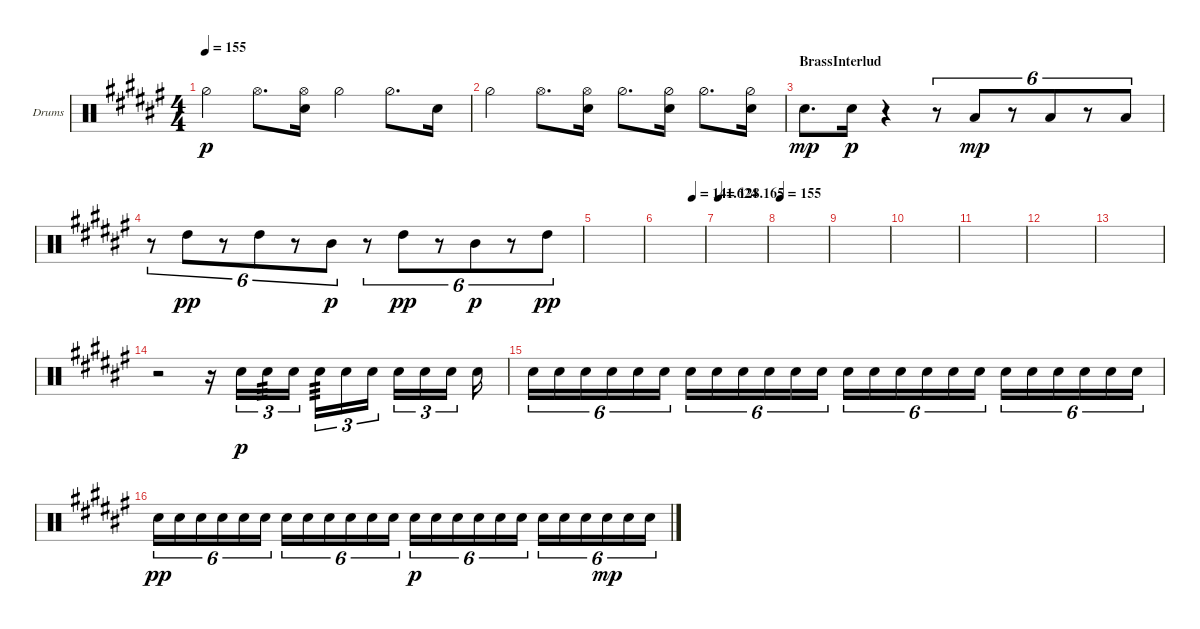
\bracketExtendMode groupsimilarinstruments
\firstSystemTrackNameOrientation horizontal
\otherSystemsTrackNameOrientation horizontal
\track ("Drums" "Drums") {instrument percussion}
\staff {score}
\articulation defaults
\ts (4 4)
\tempo 155
\clef neutral
\scale
0.272727
\ks f# "Hi-Hat (half)".4{dy p} "Hi-Hat (open)".8{d}
("Snare (hit) 2" "Hi-Hat (open)").16 "Hi-Hat (half)".4 "Hi-Hat (half)".8{d} "Snare (hit) 2".16 |
\scale
0.29021 "Hi-Hat (half)".4 "Hi-Hat (open)".8{d} ("Snare (hit) 2" "Hi-Hat (open)").16 "Hi-Hat (half)".8{d} ("Hi-Hat (half)" "Snare (hit) 2").16 "Hi-Hat (half)".8{d} ("Snare (hit) 2" "Hi-Hat (half)").16 |
\section ("" "BrassInterlud")
"Snare (hit) 2".8{d dy mp} "Snare (hit) 2".16{dy p} r.4 r.8{tu (6 4)} "Low Tom (hit)".8{tu (6 4) dy mp} r.8{tu (6 4)} "Low Tom (hit)".8{tu (6 4)} r.8{tu (6 4)} "Low Tom (hit)".8{tu (6 4)} |
r.8{tu (6 4)} "High Tom (hit)".8{tu (6 4) dy pp} r.8{tu (6 4)} "High Tom (hit)".8{tu (6 4)} r.8{tu (6 4)} "Mid Tom (hit)".8{tu (6 4) dy p} r.8{tu (6 4)} "High Tom (hit)".8{tu (6 4) dy pp} r.8{tu (6 4)} "Mid Tom (hit)".8{tu (6 4) dy p} r.8{tu (6 4)} "High Tom (hit)".8{tu (6 4) dy pp} |
|
\tempo (141.624 0.75)
|
\tempo
128.165 |
\tempo (155 0.00625)
|
|
|
|
|
|
r.2 r.16 "Snare (hit) 2".16{tu (3 2) dy p} "Snare (hit) 2".16{tu (3 2) tp 3} "Snare (hit) 2".16{tu (3 2)} "Snare (hit) 2".16{tu (3 2) tp 3} "Snare (hit) 2".16{tu (3 2)} "Snare (hit) 2".16{tu (3 2)} "Snare (hit) 2".16{tu (3 2)} "Snare (hit) 2".16{tu (3 2)} "Snare (hit) 2".16{tu (3 2)} "Snare (hit) 2".16 |
"Snare (hit) 2".16{tu (6 4)} "Snare (hit) 2".16{tu (6 4)} "Snare (hit) 2".16{tu (6 4)} "Snare (hit) 2".16{tu (6 4)} "Snare (hit) 2".16{tu (6 4)} "Snare (hit) 2".16{tu (6 4)} "Snare (hit) 2".16{tu (6 4)} "Snare (hit) 2".16{tu (6 4)} "Snare (hit) 2".16{tu (6 4)} "Snare (hit) 2".16{tu (6 4)} "Snare (hit) 2".16{tu (6 4)} "Snare (hit) 2".16{tu (6 4)} "Snare (hit) 2".16{tu (6 4)} "Snare (hit) 2".16{tu (6 4)} "Snare (hit) 2".16{tu (6 4)} "Snare (hit) 2".16{tu (6 4)} "Snare (hit) 2".16{tu (6 4)} "Snare (hit) 2".16{tu (6 4)} "Snare (hit) 2".16{tu (6 4)} "Snare (hit) 2".16{tu (6 4)} "Snare (hit) 2".16{tu (6 4)} "Snare (hit) 2".16{tu (6 4)} "Snare (hit) 2".16{tu (6 4)} "Snare (hit) 2".16{tu (6 4)} |
"Snare (hit) 2".16{tu (6 4) dy pp} "Snare (hit) 2".16{tu (6 4)} "Snare (hit) 2".16{tu (6 4)} "Snare (hit) 2".16{tu (6 4)} "Snare (hit) 2".16{tu (6 4)} "Snare (hit) 2".16{tu (6 4)} "Snare (hit) 2".16{tu (6 4)} "Snare (hit) 2".16{tu (6 4)} "Snare (hit) 2".16{tu (6 4)} "Snare (hit) 2".16{tu (6 4)} "Snare (hit) 2".16{tu (6 4)} "Snare (hit) 2".16{tu (6 4)} "Snare (hit) 2".16{tu (6 4) dy p} "Snare (hit) 2".16{tu (6 4)} "Snare (hit) 2".16{tu (6 4)} "Snare (hit) 2".16{tu (6 4)} "Snare (hit) 2".16{tu (6 4)} "Snare (hit) 2".16{tu (6 4)} "Snare (hit) 2".16{tu (6 4)} "Snare (hit) 2".16{tu (6 4)} "Snare (hit) 2".16{tu (6 4)} "Snare (hit) 2".16{tu (6 4) dy mp} "Snare (hit) 2".16{tu (6 4)} "Snare (hit) 2".16{tu (6 4)}
